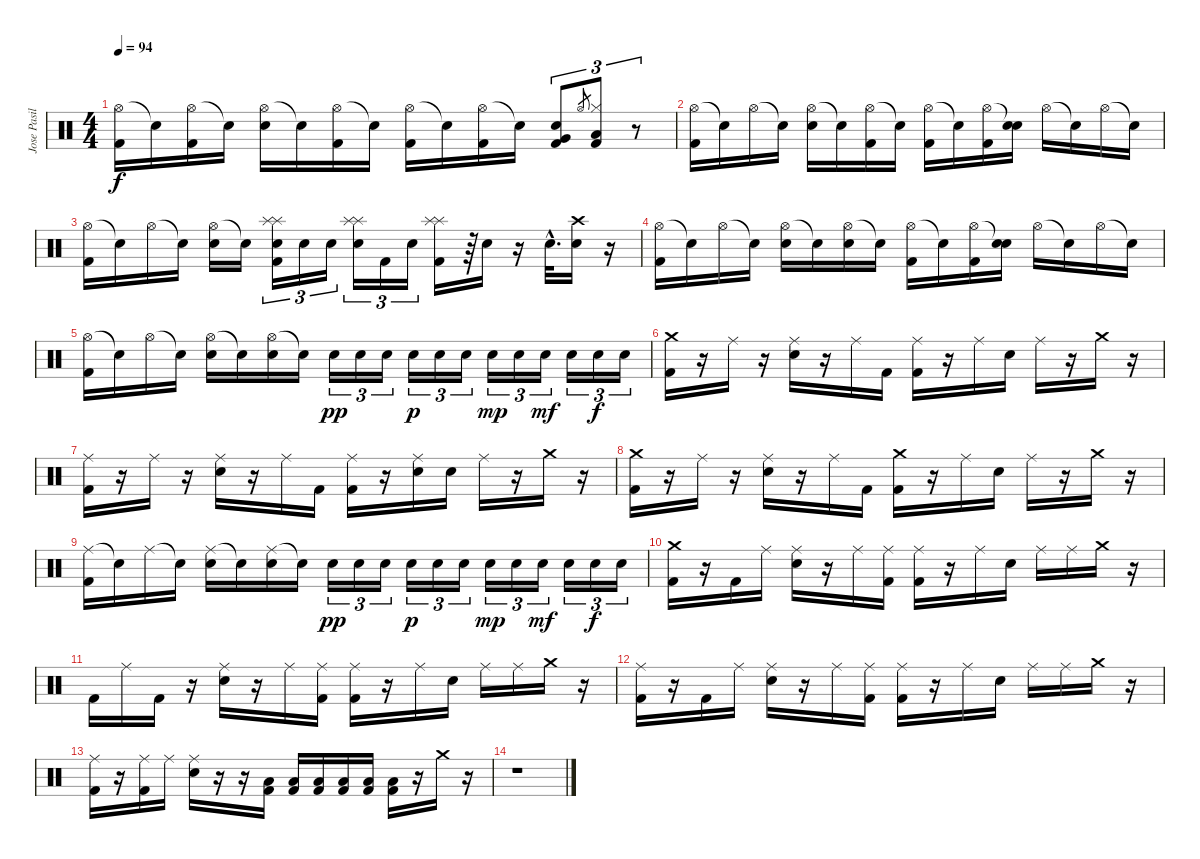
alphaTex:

\track ("Jose Pasillas" "Jose Pasil") {instrument percussion}
\staff {score}
\articulation defaults
\ts (4 4)
\tempo 94
\clef neutral
\ks c
("Hi-Hat (open)" "Kick (hit) 2").16{dy f} "Snare (hit)"{t}.16 ("Hi-Hat (open)" "Kick (hit) 2").16 "Snare (hit)"{t}.16 ("Hi-Hat (open)" "Electric Snare (hit)").16 "Snare (hit)"{t}.16 ("Hi-Hat (open)" "Kick (hit) 2").16 "Snare (hit)"{t}.16 ("Hi-Hat (open)" "Kick (hit) 2").16 "Snare (hit)"{t}.16 ("Hi-Hat (open)" "Kick (hit) 2").16 "Snare (hit)"{t}.16 ("Kick (hit) 2" "Very Low Tom (hit)" "Electric Snare (hit)").8{tu (3 2)} "Hi-Hat (open)".8{gr} ("Hi-Hat (closed)" "Kick (hit) 2" "Low Floor Tom (hit)").8{tu (3 2)} r.8{tu (3 2)} |
("Hi-Hat (open)" "Kick (hit) 2").16 "Snare (hit)"{t}.16 "Hi-Hat (open)".16 "Snare (hit)"{t}.16 ("Hi-Hat (open)" "Electric Snare (hit)").16 "Snare (hit)"{t}.16 ("Hi-Hat (open)" "Kick (hit) 2").16 "Snare (hit)"{t}.16 ("Hi-Hat (open)" "Kick (hit) 2").16 "Snare (hit)"{t}.16 ("Hi-Hat (open)" "Kick (hit) 2").16 ("Snare (hit)"{t} "Electric Snare (hit)").16 "Hi-Hat (open)".16 "Snare (hit)"{t}.16 "Hi-Hat (open)".16 "Snare (hit)"{t}.16 |
("Hi-Hat (open)" "Kick (hit) 2").16 "Snare (hit)"{t}.16 "Hi-Hat (open)".16 "Snare (hit)"{t}.16 ("Hi-Hat (open)" "Electric Snare (hit)").16 "Snare (hit)"{t}.16 ("Splash (hit)" "Splash (hit)" "Electric Snare (hit)" "Kick (hit) 2").16{tu (3 2)} "Electric Snare (hit)".16{tu (3 2)} "Electric Snare (hit)".16{tu (3 2)} ("Splash (hit)" "Splash (hit)" "Electric Snare (hit)").16{tu (3 2)} "Kick (hit) 2".16{tu (3 2)} "Electric Snare (hit)".16{tu (3 2)} ("Splash (hit)" "Splash (hit)" "Kick (hit) 2").16 r.64 "Electric Snare (hit)".16 r.16 "Electric Snare (hit)"{hac}.32{d} ("Crash high (hit)" "Electric Snare (hit)").16 r.16 |
("Hi-Hat (open)" "Kick (hit) 2").16 "Snare (hit)"{t}.16 "Hi-Hat (open)".16 "Snare (hit)"{t}.16 ("Hi-Hat (open)" "Electric Snare (hit)").16 "Snare (hit)"{t}.16 ("Hi-Hat (open)" "Electric Snare (hit)").16 "Snare (hit)"{t}.16 ("Hi-Hat (open)" "Kick (hit) 2").16 "Snare (hit)"{t}.16 ("Hi-Hat (open)" "Kick (hit) 2").16 ("Snare (hit)"{t} "Electric Snare (hit)").16 "Hi-Hat (open)".16 "Snare (hit)"{t}.16 "Hi-Hat (open)".16 "Snare (hit)"{t}.16 |
("Hi-Hat (open)" "Kick (hit) 2").16 "Snare (hit)"{t}.16 "Hi-Hat (open)".16 "Snare (hit)"{t}.16 ("Hi-Hat (open)" "Electric Snare (hit)").16 "Snare (hit)"{t}.16 ("Hi-Hat (open)" "Electric Snare (hit)").16 "Snare (hit)"{t}.16 "Electric Snare (hit)".16{tu (3 2) dy pp} "Electric Snare (hit)".16{tu (3 2)} "Electric Snare (hit)".16{tu (3 2)} "Electric Snare (hit)".16{tu (3 2) dy p} "Electric Snare (hit)".16{tu (3 2)} "Electric Snare (hit)".16{tu (3 2)} "Electric Snare (hit)".16{tu (3 2) dy mp} "Electric Snare (hit)".16{tu (3 2)} "Electric Snare (hit)".16{tu (3 2) dy mf} "Electric Snare (hit)".16{tu (3 2)} "Electric Snare (hit)".16{tu (3 2) dy f} "Electric Snare (hit)".16{tu (3 2)} |
("Crash medium (hit)" "Kick (hit) 2").16 r.16 "Ride (middle)".16 r.16 ("Ride (middle)" "Electric Snare (hit)").16 r.16 "Ride (middle)".16 "Kick (hit) 2".16 ("Ride (middle)" "Kick (hit) 2").16 r.16 "Ride (middle)".16 "Electric Snare (hit)".16 "Ride (middle)".16 r.16 "Crash medium (hit)".16 r.16 |
("Ride (middle)" "Kick (hit) 2").16 r.16 "Ride (middle)".16 r.16 ("Ride (middle)" "Electric Snare (hit)").16 r.16 "Ride (middle)".16 "Kick (hit) 2".16 ("Ride (middle)" "Kick (hit) 2").16 r.16 ("Ride (middle)" "Electric Snare (hit)").16 "Electric Snare (hit)".16 "Ride (middle)".16 r.16 "Crash medium (hit)".16 r.16 |
("Crash medium (hit)" "Kick (hit) 2").16 r.16 "Ride (middle)".16 r.16 ("Ride (middle)" "Electric Snare (hit)").16 r.16 "Ride (middle)".16 "Kick (hit) 2".16 ("Crash medium (hit)" "Kick (hit) 2").16 r.16 "Ride (middle)".16 "Electric Snare (hit)".16 "Ride (middle)".16 r.16 "Crash medium (hit)".16 r.16 |
("Ride (middle)" "Kick (hit) 2").16 "Snare (hit)"{t}.16 "Ride (middle)".16 "Snare (hit)"{t}.16 ("Ride (middle)" "Electric Snare (hit)").16 "Snare (hit)"{t}.16 ("Ride (middle)" "Electric Snare (hit)").16 "Snare (hit)"{t}.16 "Electric Snare (hit)".16{tu (3 2) dy pp} "Electric Snare (hit)".16{tu (3 2)} "Electric Snare (hit)".16{tu (3 2)} "Electric Snare (hit)".16{tu (3 2) dy p} "Electric Snare (hit)".16{tu (3 2)} "Electric Snare (hit)".16{tu (3 2)} "Electric Snare (hit)".16{tu (3 2) dy mp} "Electric Snare (hit)".16{tu (3 2)} "Electric Snare (hit)".16{tu (3 2) dy mf} "Electric Snare (hit)".16{tu (3 2)} "Electric Snare (hit)".16{tu (3 2) dy f} "Electric Snare (hit)".16{tu (3 2)} |
("Crash medium (hit)" "Kick (hit) 2").16 r.16 "Kick (hit) 2".16 "Ride (middle)".16 ("Ride (middle)" "Electric Snare (hit)").16 r.16 "Ride (middle)".16 ("Ride (middle)" "Kick (hit) 2").16 ("Ride (middle)" "Kick (hit) 2").16 r.16 "Ride (middle)".16 "Electric Snare (hit)".16 "Ride (middle)".16 "Ride (middle)".16 "Crash medium (hit)".16 r.16 |
"Kick (hit) 2".16 "Ride (middle)".16 "Kick (hit) 2".16 r.16 ("Ride (middle)" "Electric Snare (hit)").16 r.16 "Ride (middle)".16 ("Ride (middle)" "Kick (hit) 2").16 ("Ride (middle)" "Kick (hit) 2").16 r.16 "Ride (middle)".16 "Electric Snare (hit)".16 "Ride (middle)".16 "Ride (middle)".16 "Crash medium (hit)".16 r.16 |
("Ride (middle)" "Kick (hit) 2").16 r.16 "Kick (hit) 2".16 "Ride (middle)".16 ("Ride (middle)" "Electric Snare (hit)").16 r.16 "Ride (middle)".16 ("Ride (middle)" "Kick (hit) 2").16 ("Ride (middle)" "Kick (hit) 2").16 r.16 "Ride (middle)".16 "Electric Snare (hit)".16 "Ride (middle)".16 "Ride (middle)".16 "Crash medium (hit)".16 r.16 |
("Ride (middle)" "Kick (hit) 2").16 r.16 ("Ride (middle)" "Kick (hit) 2").16 "Ride (middle)".16 ("Ride (middle)" "Electric Snare (hit)").16 r.16 r.16 ("Kick (hit) 2" "Low Floor Tom (hit)").16 ("Kick (hit) 2" "Low Floor Tom (hit)").16 ("Kick (hit) 2" "Low Floor Tom (hit)").16 ("Kick (hit) 2" "Low Floor Tom (hit)").16 ("Kick (hit) 2" "Low Floor Tom (hit)").16 ("Kick (hit) 2" "Low Floor Tom (hit)").16 r.16 "Crash medium (hit)".16 r.16 |
r.1
